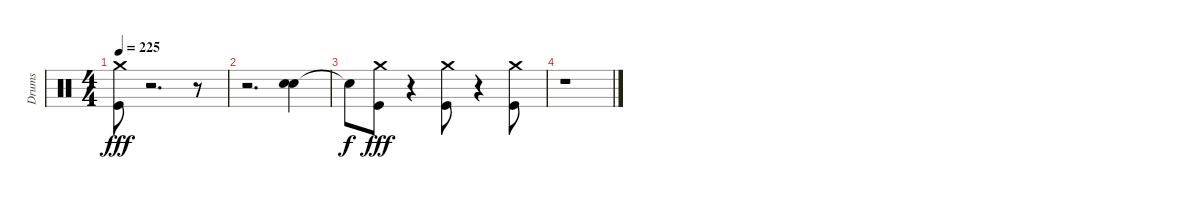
\track ("Drums" "Drums") {instrument percussion}
\staff {score}
\articulation defaults
\ts (4 4)
\tempo 225
\clef neutral
\ks c
("Crash medium (hit)" "Kick (hit)").8{dy fff} r.2{d} r.8 |
r.2{d} ("Snare (hit) 2" "Snare (hit) 2").4 |
"Snare (hit)"{t}.8{dy f} ("Crash medium (hit)" "Kick (hit)").8{dy fff} r.4 ("Crash medium (hit)" "Kick (hit)").8 r.4 ("Crash medium (hit)" "Kick (hit)").8 |
r.1
